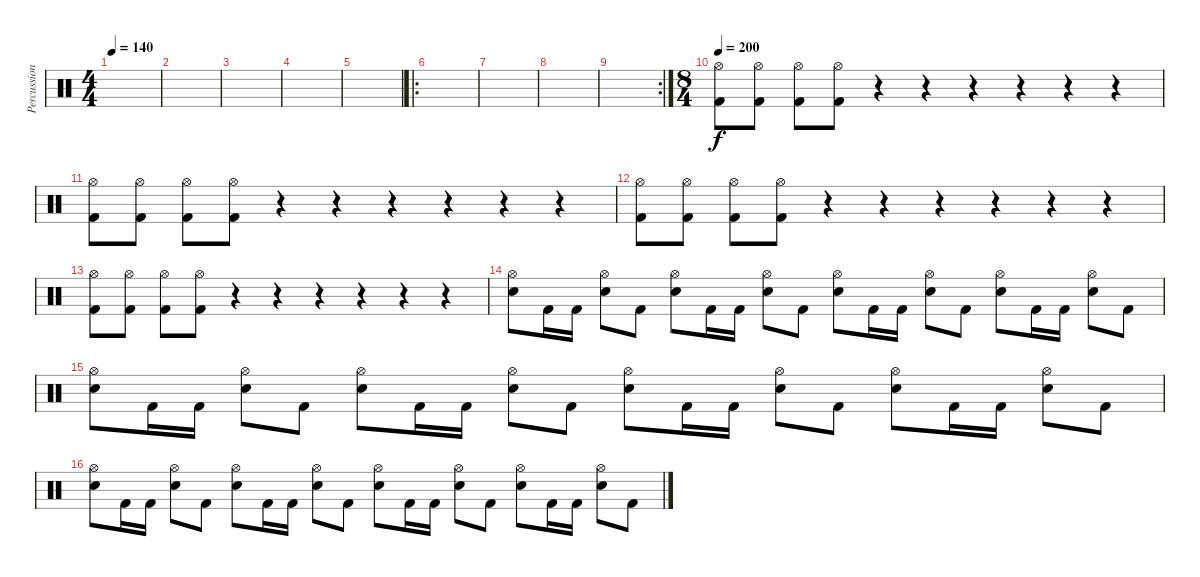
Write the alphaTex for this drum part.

\track ("Percussion" "Percussion") {instrument percussion}
\staff {score}
\articulation defaults
\ts (4 4)
\tempo 140
\clef neutral
\ks c
|
|
|
|
|
\ro
|
|
|
\rc 2
|
\ts (8 4)
\tempo 200
("Hi-Hat (open)" "Kick (hit) 2").8 ("Hi-Hat (open)" "Kick (hit) 2").8 ("Hi-Hat (open)" "Kick (hit) 2").8 ("Hi-Hat (open)" "Kick (hit) 2").8 r.4 r.4 r.4 r.4 r.4 r.4 |
("Hi-Hat (open)" "Kick (hit) 2").8 ("Hi-Hat (open)" "Kick (hit) 2").8 ("Hi-Hat (open)" "Kick (hit) 2").8 ("Hi-Hat (open)" "Kick (hit) 2").8 r.4 r.4 r.4 r.4 r.4 r.4 |
("Hi-Hat (open)" "Kick (hit) 2").8 ("Hi-Hat (open)" "Kick (hit) 2").8 ("Hi-Hat (open)" "Kick (hit) 2").8 ("Hi-Hat (open)" "Kick (hit) 2").8 r.4 r.4 r.4 r.4 r.4 r.4 |
("Hi-Hat (open)" "Kick (hit) 2").8 ("Hi-Hat (open)" "Kick (hit) 2").8 ("Hi-Hat (open)" "Kick (hit) 2").8 ("Hi-Hat (open)" "Kick (hit) 2").8 r.4 r.4 r.4 r.4 r.4 r.4 |
("Hi-Hat (open)" "Electric Snare (hit)").8 "Kick (hit) 2".16 "Kick (hit) 2".16 ("Hi-Hat (open)" "Electric Snare (hit)").8 "Kick (hit) 2".8 ("Hi-Hat (open)" "Electric Snare (hit)").8 "Kick (hit) 2".16 "Kick (hit) 2".16 ("Hi-Hat (open)" "Electric Snare (hit)").8 "Kick (hit) 2".8 ("Hi-Hat (open)" "Electric Snare (hit)").8 "Kick (hit) 2".16 "Kick (hit) 2".16 ("Hi-Hat (open)" "Electric Snare (hit)").8 "Kick (hit) 2".8 ("Hi-Hat (open)" "Electric Snare (hit)").8 "Kick (hit) 2".16 "Kick (hit) 2".16 ("Hi-Hat (open)" "Electric Snare (hit)").8 "Kick (hit) 2".8 |
("Hi-Hat (open)" "Electric Snare (hit)").8 "Kick (hit) 2".16 "Kick (hit) 2".16 ("Hi-Hat (open)" "Electric Snare (hit)").8 "Kick (hit) 2".8 ("Hi-Hat (open)" "Electric Snare (hit)").8 "Kick (hit) 2".16 "Kick (hit) 2".16 ("Hi-Hat (open)" "Electric Snare (hit)").8 "Kick (hit) 2".8 ("Hi-Hat (open)" "Electric Snare (hit)").8 "Kick (hit) 2".16 "Kick (hit) 2".16 ("Hi-Hat (open)" "Electric Snare (hit)").8 "Kick (hit) 2".8 ("Hi-Hat (open)" "Electric Snare (hit)").8 "Kick (hit) 2".16 "Kick (hit) 2".16 ("Hi-Hat (open)" "Electric Snare (hit)").8 "Kick (hit) 2".8 |
("Hi-Hat (open)" "Electric Snare (hit)").8 "Kick (hit) 2".16 "Kick (hit) 2".16 ("Hi-Hat (open)" "Electric Snare (hit)").8 "Kick (hit) 2".8 ("Hi-Hat (open)" "Electric Snare (hit)").8 "Kick (hit) 2".16 "Kick (hit) 2".16 ("Hi-Hat (open)" "Electric Snare (hit)").8 "Kick (hit) 2".8 ("Hi-Hat (open)" "Electric Snare (hit)").8 "Kick (hit) 2".16 "Kick (hit) 2".16 ("Hi-Hat (open)" "Electric Snare (hit)").8 "Kick (hit) 2".8 ("Hi-Hat (open)" "Electric Snare (hit)").8 "Kick (hit) 2".16 "Kick (hit) 2".16 ("Hi-Hat (open)" "Electric Snare (hit)").8 "Kick (hit) 2".8
